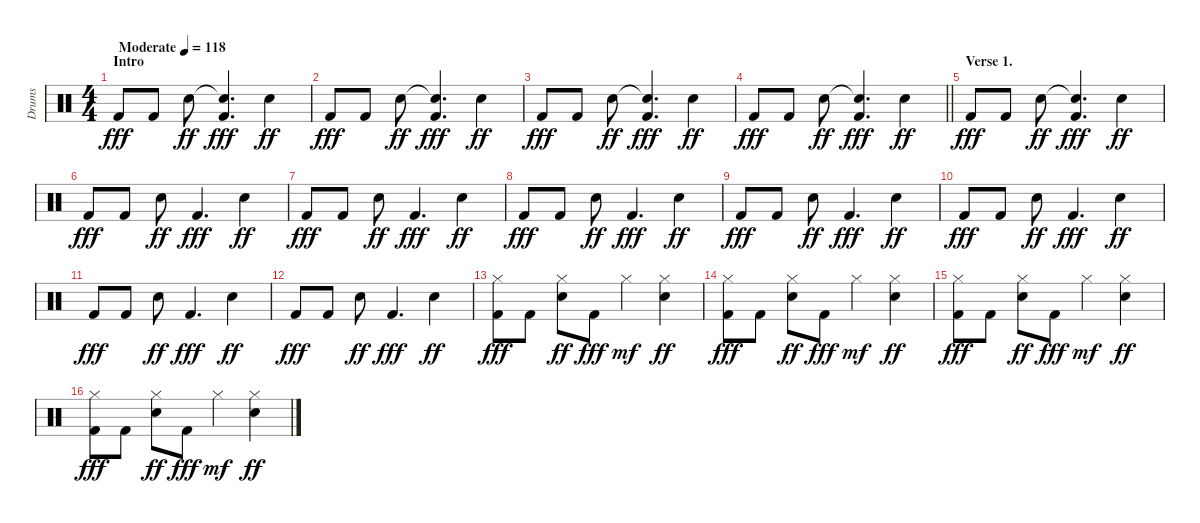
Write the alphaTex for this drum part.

\track ("Drums" "Drums") {instrument percussion}
\staff {score}
\articulation defaults
\ts (4 4)
\section ("" "Intro")
\tempo (118 "Moderate")
\clef neutral
\ks c "Kick (hit) 2".8{dy fff} "Kick (hit) 2".8 "Snare (hit) 2".8{dy ff}
("Snare (hit)"{t} "Kick (hit) 2").4{d dy fff} "Snare (hit) 2".4{dy ff} |
"Kick (hit) 2".8{dy fff} "Kick (hit) 2".8 "Snare (hit) 2".8{dy ff} ("Snare (hit)"{t} "Kick (hit) 2").4{d dy fff} "Snare (hit) 2".4{dy ff} |
"Kick (hit) 2".8{dy fff} "Kick (hit) 2".8 "Snare (hit) 2".8{dy ff} ("Snare (hit)"{t} "Kick (hit) 2").4{d dy fff} "Snare (hit) 2".4{dy ff} |
\barLineRight lightlight "Kick (hit) 2".8{dy fff} "Kick (hit) 2".8 "Snare (hit) 2".8{dy ff}
("Snare (hit)"{t} "Kick (hit) 2").4{d dy fff} "Snare (hit) 2".4{dy ff} |
\section ("" "Verse 1.")
"Kick (hit) 2".8{dy fff} "Kick (hit) 2".8 "Snare (hit) 2".8{dy ff} ("Snare (hit)"{t} "Kick (hit) 2").4{d dy fff} "Snare (hit) 2".4{dy ff} |
"Kick (hit) 2".8{dy fff} "Kick (hit) 2".8 "Snare (hit) 2".8{dy ff} "Kick (hit) 2".4{d dy fff} "Snare (hit) 2".4{dy ff} |
"Kick (hit) 2".8{dy fff} "Kick (hit) 2".8 "Snare (hit) 2".8{dy ff} "Kick (hit) 2".4{d dy fff} "Snare (hit) 2".4{dy ff} |
"Kick (hit) 2".8{dy fff} "Kick (hit) 2".8 "Snare (hit) 2".8{dy ff} "Kick (hit) 2".4{d dy fff} "Snare (hit) 2".4{dy ff} |
"Kick (hit) 2".8{dy fff} "Kick (hit) 2".8 "Snare (hit) 2".8{dy ff} "Kick (hit) 2".4{d dy fff} "Snare (hit) 2".4{dy ff} |
"Kick (hit) 2".8{dy fff} "Kick (hit) 2".8 "Snare (hit) 2".8{dy ff} "Kick (hit) 2".4{d dy fff} "Snare (hit) 2".4{dy ff} |
"Kick (hit) 2".8{dy fff} "Kick (hit) 2".8 "Snare (hit) 2".8{dy ff} "Kick (hit) 2".4{d dy fff} "Snare (hit) 2".4{dy ff} |
"Kick (hit) 2".8{dy fff} "Kick (hit) 2".8 "Snare (hit) 2".8{dy ff} "Kick (hit) 2".4{d dy fff} "Snare (hit) 2".4{dy ff} |
("Hi-Hat (closed)" "Kick (hit) 2").8{dy fff} "Kick (hit) 2".8 ("Hi-Hat (closed)" "Snare (hit) 2").8{dy ff} "Kick (hit) 2".8{dy fff} "Hi-Hat (closed)".4{dy mf} ("Hi-Hat (closed)" "Snare (hit) 2").4{dy ff} |
("Hi-Hat (closed)" "Kick (hit) 2").8{dy fff} "Kick (hit) 2".8 ("Hi-Hat (closed)" "Snare (hit) 2").8{dy ff} "Kick (hit) 2".8{dy fff} "Hi-Hat (closed)".4{dy mf} ("Hi-Hat (closed)" "Snare (hit) 2").4{dy ff} |
("Hi-Hat (closed)" "Kick (hit) 2").8{dy fff} "Kick (hit) 2".8 ("Hi-Hat (closed)" "Snare (hit) 2").8{dy ff} "Kick (hit) 2".8{dy fff} "Hi-Hat (closed)".4{dy mf} ("Hi-Hat (closed)" "Snare (hit) 2").4{dy ff} |
("Hi-Hat (closed)" "Kick (hit) 2").8{dy fff} "Kick (hit) 2".8 ("Hi-Hat (closed)" "Snare (hit) 2").8{dy ff} "Kick (hit) 2".8{dy fff} "Hi-Hat (closed)".4{dy mf} ("Hi-Hat (closed)" "Snare (hit) 2").4{dy ff}
